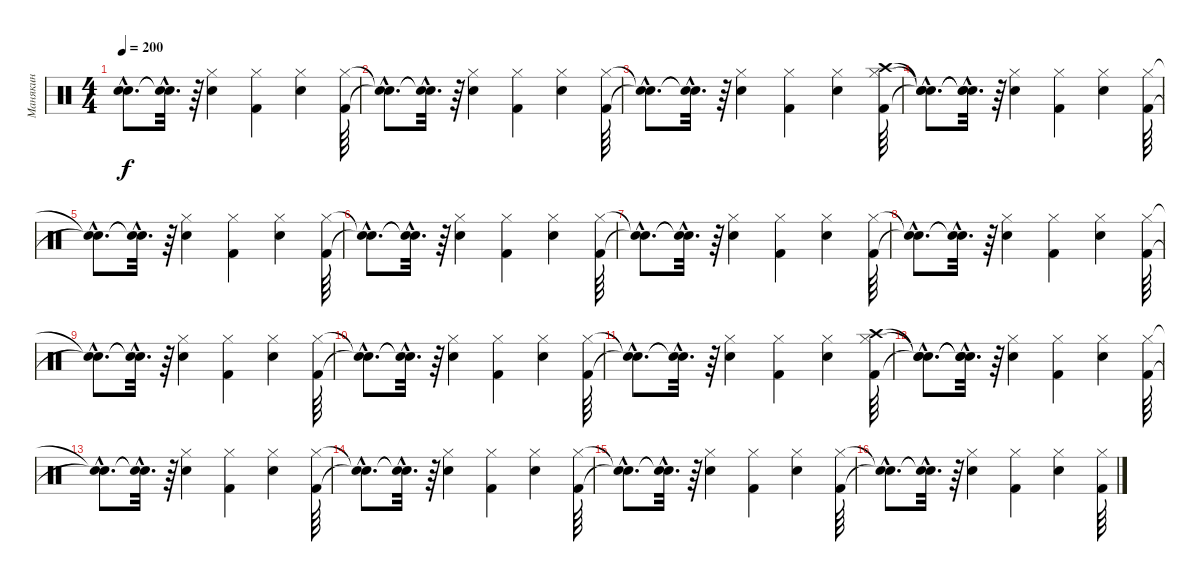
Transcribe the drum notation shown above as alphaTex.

\track ("Манякин" "Манякин") {instrument percussion}
\staff {score}
\articulation defaults
\ts (4 4)
\tempo 200
\clef neutral
\ks c
("Snare (hit)"{hac t} "Snare (hit)"{hac t}).8{d dy f} ("Snare (hit)"{hac t} "Snare (hit)"{hac t}).32{d} r.64 ("Hi-Hat (closed)" "Snare (hit) 2").4 ("Hi-Hat (closed)" "Kick (hit) 2").4 ("Hi-Hat (closed)" "Snare (hit) 2").4 ("Hi-Hat (closed)" "Kick (hit) 2").64 |
("Snare (hit)"{hac t} "Snare (hit)"{hac t}).8{d} ("Snare (hit)"{hac t} "Snare (hit)"{hac t}).32{d} r.64 ("Hi-Hat (closed)" "Snare (hit) 2").4 ("Hi-Hat (closed)" "Kick (hit) 2").4 ("Hi-Hat (closed)" "Snare (hit) 2").4 ("Hi-Hat (closed)" "Kick (hit) 2").64 |
("Snare (hit)"{hac t} "Snare (hit)"{hac t}).8{d} ("Snare (hit)"{hac t} "Snare (hit)"{hac t}).32{d} r.64 ("Hi-Hat (closed)" "Snare (hit) 2").4 ("Hi-Hat (closed)" "Kick (hit) 2").4 ("Snare (hit) 2" "Hi-Hat (closed)").4 ("Crash high (hit)" "Hi-Hat (closed)" "Kick (hit) 2").64 |
("Snare (hit)"{hac t} "Snare (hit)"{hac t} "Snare (hit)"{hac t}).8{d} ("Snare (hit)"{hac t} "Snare (hit)"{hac t} "Snare (hit)"{hac t}).32{d} r.64 ("Hi-Hat (closed)" "Snare (hit) 2").4 ("Hi-Hat (closed)" "Kick (hit) 2").4 ("Hi-Hat (closed)" "Snare (hit) 2").4 ("Hi-Hat (closed)" "Kick (hit) 2").64 |
("Snare (hit)"{hac t} "Snare (hit)"{hac t}).8{d} ("Snare (hit)"{hac t} "Snare (hit)"{hac t}).32{d} r.64 ("Hi-Hat (closed)" "Snare (hit) 2").4 ("Hi-Hat (closed)" "Kick (hit) 2").4 ("Snare (hit) 2" "Hi-Hat (closed)").4 ("Hi-Hat (closed)" "Kick (hit) 2").64 |
("Snare (hit)"{hac t} "Snare (hit)"{hac t}).8{d} ("Snare (hit)"{hac t} "Snare (hit)"{hac t}).32{d} r.64 ("Hi-Hat (closed)" "Snare (hit) 2").4 ("Hi-Hat (closed)" "Kick (hit) 2").4 ("Hi-Hat (closed)" "Snare (hit) 2").4 ("Hi-Hat (closed)" "Kick (hit) 2").64 |
("Snare (hit)"{hac t} "Snare (hit)"{hac t}).8{d} ("Snare (hit)"{hac t} "Snare (hit)"{hac t}).32{d} r.64 ("Hi-Hat (closed)" "Snare (hit) 2").4 ("Hi-Hat (closed)" "Kick (hit) 2").4 ("Snare (hit) 2" "Hi-Hat (closed)").4 ("Hi-Hat (closed)" "Kick (hit) 2").64 |
("Snare (hit)"{hac t} "Snare (hit)"{hac t}).8{d} ("Snare (hit)"{hac t} "Snare (hit)"{hac t}).32{d} r.64 ("Hi-Hat (closed)" "Snare (hit) 2").4 ("Hi-Hat (closed)" "Kick (hit) 2").4 ("Hi-Hat (closed)" "Snare (hit) 2").4 ("Hi-Hat (closed)" "Kick (hit) 2").64 |
("Snare (hit)"{hac t} "Snare (hit)"{hac t}).8{d} ("Snare (hit)"{hac t} "Snare (hit)"{hac t}).32{d} r.64 ("Hi-Hat (closed)" "Snare (hit) 2").4 ("Hi-Hat (closed)" "Kick (hit) 2").4 ("Snare (hit) 2" "Hi-Hat (closed)").4 ("Hi-Hat (closed)" "Kick (hit) 2").64 |
("Snare (hit)"{hac t} "Snare (hit)"{hac t}).8{d} ("Snare (hit)"{hac t} "Snare (hit)"{hac t}).32{d} r.64 ("Hi-Hat (closed)" "Snare (hit) 2").4 ("Hi-Hat (closed)" "Kick (hit) 2").4 ("Hi-Hat (closed)" "Snare (hit) 2").4 ("Hi-Hat (closed)" "Kick (hit) 2").64 |
("Snare (hit)"{hac t} "Snare (hit)"{hac t}).8{d} ("Snare (hit)"{hac t} "Snare (hit)"{hac t}).32{d} r.64 ("Hi-Hat (closed)" "Snare (hit) 2").4 ("Hi-Hat (closed)" "Kick (hit) 2").4 ("Snare (hit) 2" "Hi-Hat (closed)").4 ("Crash high (hit)" "Hi-Hat (closed)" "Kick (hit) 2").64 |
("Snare (hit)"{hac t} "Snare (hit)"{hac t} "Snare (hit)"{hac t}).8{d} ("Snare (hit)"{hac t} "Snare (hit)"{hac t} "Snare (hit)"{hac t}).32{d} r.64 ("Hi-Hat (closed)" "Snare (hit) 2").4 ("Hi-Hat (closed)" "Kick (hit) 2").4 ("Hi-Hat (closed)" "Snare (hit) 2").4 ("Hi-Hat (closed)" "Kick (hit) 2").64 |
("Snare (hit)"{hac t} "Snare (hit)"{hac t}).8{d} ("Snare (hit)"{hac t} "Snare (hit)"{hac t}).32{d} r.64 ("Hi-Hat (closed)" "Snare (hit) 2").4 ("Hi-Hat (closed)" "Kick (hit) 2").4 ("Snare (hit) 2" "Hi-Hat (closed)").4 ("Hi-Hat (closed)" "Kick (hit) 2").64 |
("Snare (hit)"{hac t} "Snare (hit)"{hac t}).8{d} ("Snare (hit)"{hac t} "Snare (hit)"{hac t}).32{d} r.64 ("Hi-Hat (closed)" "Snare (hit) 2").4 ("Hi-Hat (closed)" "Kick (hit) 2").4 ("Hi-Hat (closed)" "Snare (hit) 2").4 ("Hi-Hat (closed)" "Kick (hit) 2").64 |
("Snare (hit)"{hac t} "Snare (hit)"{hac t}).8{d} ("Snare (hit)"{hac t} "Snare (hit)"{hac t}).32{d} r.64 ("Hi-Hat (closed)" "Snare (hit) 2").4 ("Hi-Hat (closed)" "Kick (hit) 2").4 ("Snare (hit) 2" "Hi-Hat (closed)").4 ("Hi-Hat (closed)" "Kick (hit) 2").64 |
("Snare (hit)"{hac t} "Snare (hit)"{hac t}).8{d} ("Snare (hit)"{hac t} "Snare (hit)"{hac t}).32{d} r.64 ("Hi-Hat (closed)" "Snare (hit) 2").4 ("Hi-Hat (closed)" "Kick (hit) 2").4 ("Hi-Hat (closed)" "Snare (hit) 2").4 ("Hi-Hat (closed)" "Kick (hit) 2").64
